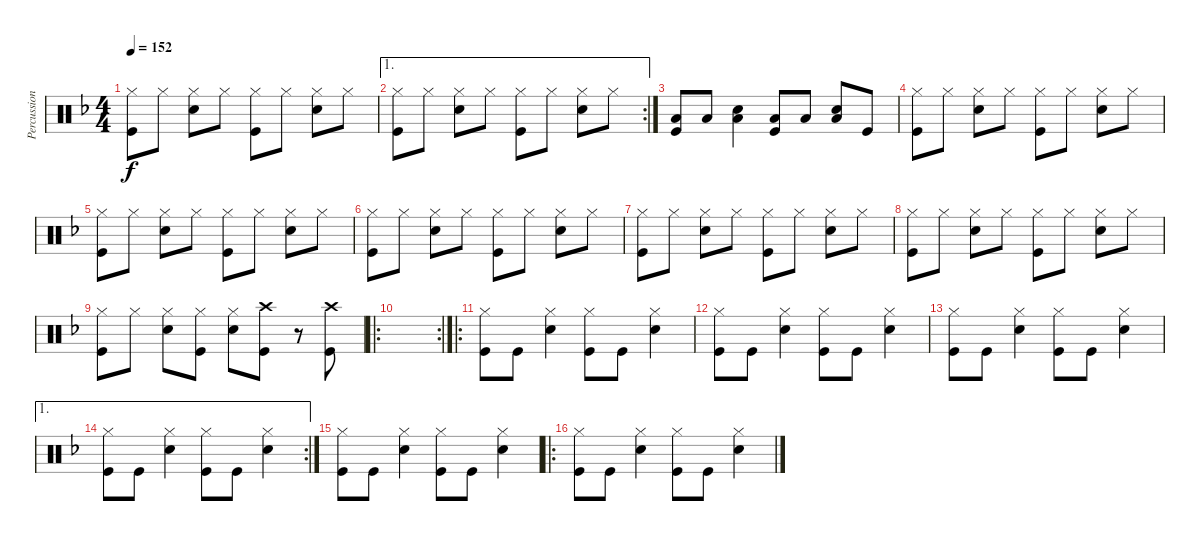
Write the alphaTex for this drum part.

\track ("Percussion" "Percussion") {instrument percussion}
\staff {score}
\articulation defaults
\ts (4 4)
\tempo 152
\clef neutral
\ks f
("Hi-Hat (closed)" "Kick (hit)").8{dy f} "Hi-Hat (closed)".8 ("Hi-Hat (closed)" "Electric Snare (hit)").8 "Hi-Hat (closed)".8 ("Hi-Hat (closed)" "Kick (hit)").8 "Hi-Hat (closed)".8 ("Hi-Hat (closed)" "Electric Snare (hit)").8 "Hi-Hat (closed)".8 |
\ae 1
\rc 2
("Hi-Hat (closed)" "Kick (hit)").8 "Hi-Hat (closed)".8 ("Hi-Hat (closed)" "Electric Snare (hit)").8 "Hi-Hat (closed)".8 ("Hi-Hat (closed)" "Kick (hit)").8 "Hi-Hat (closed)".8 ("Hi-Hat (closed)" "Electric Snare (hit)").8 "Hi-Hat (closed)".8 |
("Low Tom (hit)" "Kick (hit)").8 "Low Tom (hit)".8 ("Electric Snare (hit)" "Low Tom (hit)").4 ("Low Tom (hit)" "Kick (hit)").8 "Low Tom (hit)".8 ("Low Tom (hit)" "Electric Snare (hit)").8 "Kick (hit)".8 |
("Hi-Hat (closed)" "Kick (hit)").8 "Hi-Hat (closed)".8 ("Hi-Hat (closed)" "Electric Snare (hit)").8 "Hi-Hat (closed)".8 ("Hi-Hat (closed)" "Kick (hit)").8 "Hi-Hat (closed)".8 ("Hi-Hat (closed)" "Electric Snare (hit)").8 "Hi-Hat (closed)".8 |
("Hi-Hat (closed)" "Kick (hit)").8 "Hi-Hat (closed)".8 ("Hi-Hat (closed)" "Electric Snare (hit)").8 "Hi-Hat (closed)".8 ("Hi-Hat (closed)" "Kick (hit)").8 "Hi-Hat (closed)".8 ("Hi-Hat (closed)" "Electric Snare (hit)").8 "Hi-Hat (closed)".8 |
("Hi-Hat (closed)" "Kick (hit)").8 "Hi-Hat (closed)".8 ("Hi-Hat (closed)" "Electric Snare (hit)").8 "Hi-Hat (closed)".8 ("Hi-Hat (closed)" "Kick (hit)").8 "Hi-Hat (closed)".8 ("Hi-Hat (closed)" "Electric Snare (hit)").8 "Hi-Hat (closed)".8 |
("Hi-Hat (closed)" "Kick (hit)").8 "Hi-Hat (closed)".8 ("Hi-Hat (closed)" "Electric Snare (hit)").8 "Hi-Hat (closed)".8 ("Hi-Hat (closed)" "Kick (hit)").8 "Hi-Hat (closed)".8 ("Hi-Hat (closed)" "Electric Snare (hit)").8 "Hi-Hat (closed)".8 |
("Hi-Hat (closed)" "Kick (hit)").8 "Hi-Hat (closed)".8 ("Hi-Hat (closed)" "Electric Snare (hit)").8 "Hi-Hat (closed)".8 ("Hi-Hat (closed)" "Kick (hit)").8 "Hi-Hat (closed)".8 ("Hi-Hat (closed)" "Electric Snare (hit)").8 "Hi-Hat (closed)".8 |
("Hi-Hat (closed)" "Kick (hit)").8 "Hi-Hat (closed)".8 ("Hi-Hat (closed)" "Electric Snare (hit)").8 ("Hi-Hat (closed)" "Kick (hit)").8 ("Hi-Hat (closed)" "Electric Snare (hit)").8 ("Crash high (hit)" "Kick (hit)").8 r.8 ("Crash high (hit)" "Kick (hit)").8 |
\ro
\rc 2
|
\ro
("Hi-Hat (closed)" "Kick (hit)").8 "Kick (hit)".8 ("Hi-Hat (closed)" "Electric Snare (hit)").4 ("Hi-Hat (closed)" "Kick (hit)").8 "Kick (hit)".8 ("Hi-Hat (closed)" "Electric Snare (hit)").4 |
("Hi-Hat (closed)" "Kick (hit)").8 "Kick (hit)".8 ("Hi-Hat (closed)" "Electric Snare (hit)").4 ("Hi-Hat (closed)" "Kick (hit)").8 "Kick (hit)".8 ("Hi-Hat (closed)" "Electric Snare (hit)").4 |
("Hi-Hat (closed)" "Kick (hit)").8 "Kick (hit)".8 ("Hi-Hat (closed)" "Electric Snare (hit)").4 ("Hi-Hat (closed)" "Kick (hit)").8 "Kick (hit)".8 ("Hi-Hat (closed)" "Electric Snare (hit)").4 |
\ae 1
\rc 2
("Hi-Hat (closed)" "Kick (hit)").8 "Kick (hit)".8 ("Hi-Hat (closed)" "Electric Snare (hit)").4 ("Hi-Hat (closed)" "Kick (hit)").8 "Kick (hit)".8 ("Hi-Hat (closed)" "Electric Snare (hit)").4 |
("Hi-Hat (closed)" "Kick (hit)").8 "Kick (hit)".8 ("Hi-Hat (closed)" "Electric Snare (hit)").4 ("Hi-Hat (closed)" "Kick (hit)").8 "Kick (hit)".8 ("Hi-Hat (closed)" "Electric Snare (hit)").4 |
\ro
("Hi-Hat (closed)" "Kick (hit)").8 "Kick (hit)".8 ("Hi-Hat (closed)" "Electric Snare (hit)").4 ("Hi-Hat (closed)" "Kick (hit)").8 "Kick (hit)".8 ("Hi-Hat (closed)" "Electric Snare (hit)").4
